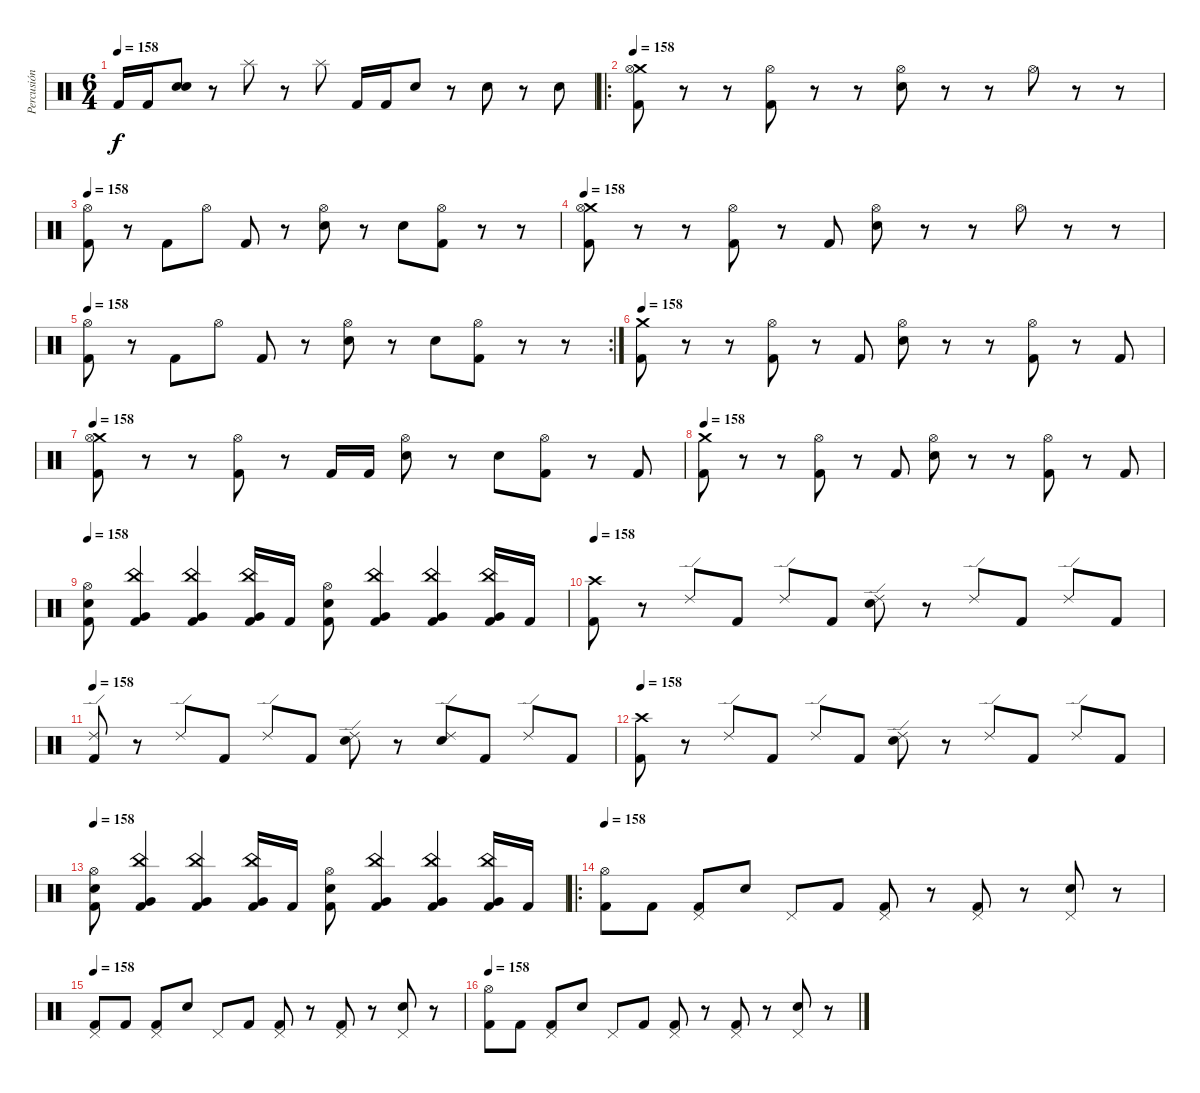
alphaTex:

\track ("Percusión" "Percusión") {instrument percussion}
\staff {score}
\articulation defaults
\ts (6 4)
\tempo 158
\clef neutral
\ks c "Kick (hit) 2".16{dy f} "Kick (hit) 2".16
("Snare (hit)" "Electric Snare (hit)").8 r.8 "Splash (hit)".8 r.8 "Splash (hit)".8 "Kick (hit) 2".16 "Kick (hit) 2".16 "Electric Snare (hit)".8 r.8 "Electric Snare (hit)".8 r.8 "Electric Snare (hit)".8 |
\ro
\tempo 158
("Crash medium (hit)" "Hi-Hat (open)" "Kick (hit) 2").8 r.8 r.8 ("Hi-Hat (open)" "Kick (hit) 2").8 r.8 r.8 ("Hi-Hat (open)" "Electric Snare (hit)").8 r.8 r.8 "Hi-Hat (open)".8 r.8 r.8 |
\tempo 158
("Hi-Hat (open)" "Kick (hit) 2").8 r.8 "Kick (hit) 2".8 "Hi-Hat (open)".8 "Kick (hit) 2".8 r.8 ("Hi-Hat (open)" "Electric Snare (hit)").8 r.8 "Electric Snare (hit)".8 ("Hi-Hat (open)" "Kick (hit) 2").8 r.8 r.8 |
\tempo 158
("Crash medium (hit)" "Hi-Hat (open)" "Kick (hit) 2").8 r.8 r.8 ("Hi-Hat (open)" "Kick (hit) 2").8 r.8 "Kick (hit) 2".8 ("Hi-Hat (open)" "Electric Snare (hit)").8 r.8 r.8 "Hi-Hat (open)".8 r.8 r.8 |
\rc 2
\tempo 158
("Hi-Hat (open)" "Kick (hit) 2").8 r.8 "Kick (hit) 2".8 "Hi-Hat (open)".8 "Kick (hit) 2".8 r.8 ("Hi-Hat (open)" "Electric Snare (hit)").8 r.8 "Electric Snare (hit)".8 ("Hi-Hat (open)" "Kick (hit) 2").8 r.8 r.8 |
\tempo 158
("Crash medium (hit)" "Kick (hit) 2").8 r.8 r.8 ("Hi-Hat (open)" "Kick (hit) 2").8 r.8 "Kick (hit) 2".8 ("Hi-Hat (open)" "Electric Snare (hit)").8 r.8 r.8 ("Hi-Hat (open)" "Kick (hit) 2").8 r.8 "Kick (hit) 2".8 |
\tempo 158
("Crash medium (hit)" "Hi-Hat (open)" "Kick (hit) 2").8 r.8 r.8 ("Hi-Hat (open)" "Kick (hit) 2").8 r.8 "Kick (hit) 2".16 "Kick (hit) 2".16 ("Hi-Hat (open)" "Electric Snare (hit)").8 r.8 "Electric Snare (hit)".8 ("Hi-Hat (open)" "Kick (hit) 2").8 r.8 "Kick (hit) 2".8 |
\tempo 158
("Crash medium (hit)" "Kick (hit) 2").8 r.8 r.8 ("Hi-Hat (open)" "Kick (hit) 2").8 r.8 "Kick (hit) 2".8 ("Hi-Hat (open)" "Electric Snare (hit)").8 r.8 r.8 ("Hi-Hat (open)" "Kick (hit) 2").8 r.8 "Kick (hit) 2".8 |
\tempo 158
("Hi-Hat (open)" "Electric Snare (hit)" "Kick (hit) 2").8 ("China (hit)" "Very Low Tom (hit)" "Kick (hit) 2").4 ("China (hit)" "Very Low Tom (hit)" "Kick (hit) 2").4 ("China (hit)" "Very Low Tom (hit)" "Kick (hit) 2").16 "Kick (hit) 2".16 ("Hi-Hat (open)" "Electric Snare (hit)" "Kick (hit) 2").8 ("China (hit)" "Very Low Tom (hit)" "Kick (hit) 2").4 ("China (hit)" "Very Low Tom (hit)" "Kick (hit) 2").4 ("China (hit)" "Very Low Tom (hit)" "Kick (hit) 2").16 "Kick (hit) 2".16 |
\tempo 158
("Crash high (hit)" "Kick (hit) 2").8 r.8 "Ride (edge) 2".8 "Kick (hit) 2".8 "Ride (edge) 2".8 "Kick (hit) 2".8 ("Ride (edge) 2" "Electric Snare (hit)").8 r.8 "Ride (edge) 2".8 "Kick (hit) 2".8 "Ride (edge) 2".8 "Kick (hit) 2".8 |
\tempo 158
("Ride (edge) 2" "Kick (hit) 2").8 r.8 "Ride (edge) 2".8 "Kick (hit) 2".8 "Ride (edge) 2".8 "Kick (hit) 2".8 ("Ride (edge) 2" "Electric Snare (hit)").8 r.8 ("Ride (edge) 2" "Electric Snare (hit)").8 "Kick (hit) 2".8 "Ride (edge) 2".8 "Kick (hit) 2".8 |
\tempo 158
("Crash high (hit)" "Kick (hit) 2").8 r.8 "Ride (edge) 2".8 "Kick (hit) 2".8 "Ride (edge) 2".8 "Kick (hit) 2".8 ("Ride (edge) 2" "Electric Snare (hit)").8 r.8 "Ride (edge) 2".8 "Kick (hit) 2".8 "Ride (edge) 2".8 "Kick (hit) 2".8 |
\tempo 158
("Hi-Hat (open)" "Electric Snare (hit)" "Kick (hit) 2").8 ("China (hit)" "Very Low Tom (hit)" "Kick (hit) 2").4 ("China (hit)" "Very Low Tom (hit)" "Kick (hit) 2").4 ("China (hit)" "Very Low Tom (hit)" "Kick (hit) 2").16 "Kick (hit) 2".16 ("Hi-Hat (open)" "Electric Snare (hit)" "Kick (hit) 2").8 ("China (hit)" "Very Low Tom (hit)" "Kick (hit) 2").4 ("China (hit)" "Very Low Tom (hit)" "Kick (hit) 2").4 ("China (hit)" "Very Low Tom (hit)" "Kick (hit) 2").16 "Kick (hit) 2".16 |
\ro
\tempo 158
("Hi-Hat (open)" "Kick (hit) 2").8 "Kick (hit) 2".8 ("Pedal Hi-Hat (hit)" "Kick (hit) 2").8 "Electric Snare (hit)".8 "Pedal Hi-Hat (hit)".8 "Kick (hit) 2".8 ("Pedal Hi-Hat (hit)" "Kick (hit) 2").8 r.8 ("Pedal Hi-Hat (hit)" "Kick (hit) 2").8 r.8 ("Pedal Hi-Hat (hit)" "Electric Snare (hit)").8 r.8 |
\tempo 158
("Pedal Hi-Hat (hit)" "Kick (hit) 2").8 "Kick (hit) 2".8 ("Pedal Hi-Hat (hit)" "Kick (hit) 2").8 "Electric Snare (hit)".8 "Pedal Hi-Hat (hit)".8 "Kick (hit) 2".8 ("Pedal Hi-Hat (hit)" "Kick (hit) 2").8 r.8 ("Pedal Hi-Hat (hit)" "Kick (hit) 2").8 r.8 ("Pedal Hi-Hat (hit)" "Electric Snare (hit)").8 r.8 |
\tempo 158
("Hi-Hat (open)" "Kick (hit) 2").8 "Kick (hit) 2".8 ("Pedal Hi-Hat (hit)" "Kick (hit) 2").8 "Electric Snare (hit)".8 "Pedal Hi-Hat (hit)".8 "Kick (hit) 2".8 ("Pedal Hi-Hat (hit)" "Kick (hit) 2").8 r.8 ("Pedal Hi-Hat (hit)" "Kick (hit) 2").8 r.8 ("Pedal Hi-Hat (hit)" "Electric Snare (hit)").8 r.8
